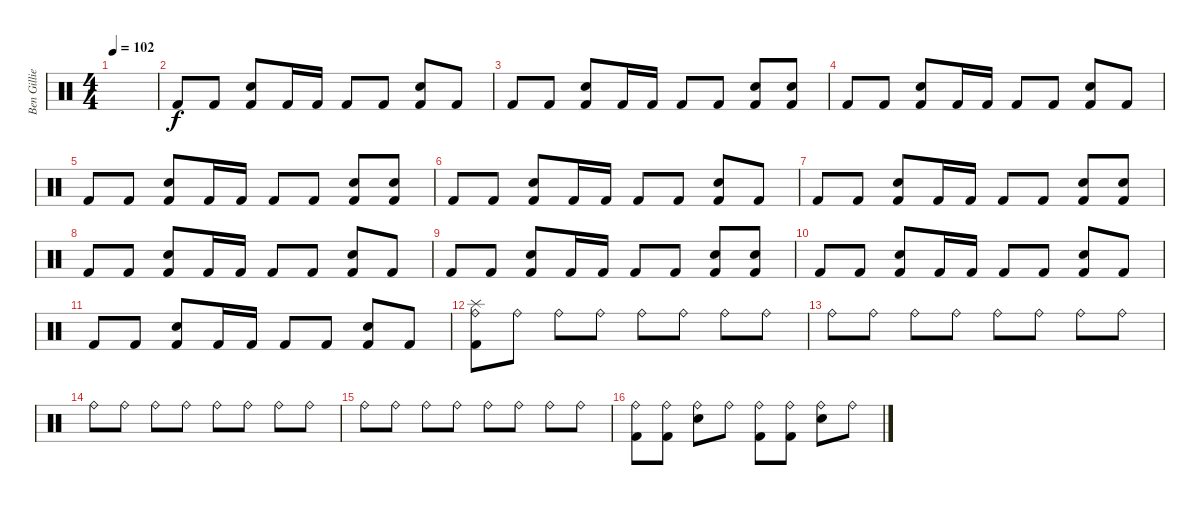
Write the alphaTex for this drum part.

\track ("Ben Gillies" "Ben Gillie") {instrument percussion}
\staff {score}
\articulation defaults
\ts (4 4)
\tempo 102
\clef neutral
\ks c
|
"Kick (hit) 2".8 "Kick (hit) 2".8 ("Electric Snare (hit)" "Kick (hit) 2").8 "Kick (hit) 2".16 "Kick (hit) 2".16 "Kick (hit) 2".8 "Kick (hit) 2".8 ("Electric Snare (hit)" "Kick (hit) 2").8 "Kick (hit) 2".8 |
"Kick (hit) 2".8 "Kick (hit) 2".8 ("Electric Snare (hit)" "Kick (hit) 2").8 "Kick (hit) 2".16 "Kick (hit) 2".16 "Kick (hit) 2".8 "Kick (hit) 2".8 ("Electric Snare (hit)" "Kick (hit) 2").8 ("Electric Snare (hit)" "Kick (hit) 2").8 |
"Kick (hit) 2".8 "Kick (hit) 2".8 ("Electric Snare (hit)" "Kick (hit) 2").8 "Kick (hit) 2".16 "Kick (hit) 2".16 "Kick (hit) 2".8 "Kick (hit) 2".8 ("Electric Snare (hit)" "Kick (hit) 2").8 "Kick (hit) 2".8 |
"Kick (hit) 2".8 "Kick (hit) 2".8 ("Electric Snare (hit)" "Kick (hit) 2").8 "Kick (hit) 2".16 "Kick (hit) 2".16 "Kick (hit) 2".8 "Kick (hit) 2".8 ("Electric Snare (hit)" "Kick (hit) 2").8 ("Electric Snare (hit)" "Kick (hit) 2").8 |
"Kick (hit) 2".8 "Kick (hit) 2".8 ("Electric Snare (hit)" "Kick (hit) 2").8 "Kick (hit) 2".16 "Kick (hit) 2".16 "Kick (hit) 2".8 "Kick (hit) 2".8 ("Electric Snare (hit)" "Kick (hit) 2").8 "Kick (hit) 2".8 |
"Kick (hit) 2".8 "Kick (hit) 2".8 ("Electric Snare (hit)" "Kick (hit) 2").8 "Kick (hit) 2".16 "Kick (hit) 2".16 "Kick (hit) 2".8 "Kick (hit) 2".8 ("Electric Snare (hit)" "Kick (hit) 2").8 ("Electric Snare (hit)" "Kick (hit) 2").8 |
"Kick (hit) 2".8 "Kick (hit) 2".8 ("Electric Snare (hit)" "Kick (hit) 2").8 "Kick (hit) 2".16 "Kick (hit) 2".16 "Kick (hit) 2".8 "Kick (hit) 2".8 ("Electric Snare (hit)" "Kick (hit) 2").8 "Kick (hit) 2".8 |
"Kick (hit) 2".8 "Kick (hit) 2".8 ("Electric Snare (hit)" "Kick (hit) 2").8 "Kick (hit) 2".16 "Kick (hit) 2".16 "Kick (hit) 2".8 "Kick (hit) 2".8 ("Electric Snare (hit)" "Kick (hit) 2").8 ("Electric Snare (hit)" "Kick (hit) 2").8 |
"Kick (hit) 2".8 "Kick (hit) 2".8 ("Electric Snare (hit)" "Kick (hit) 2").8 "Kick (hit) 2".16 "Kick (hit) 2".16 "Kick (hit) 2".8 "Kick (hit) 2".8 ("Electric Snare (hit)" "Kick (hit) 2").8 "Kick (hit) 2".8 |
"Kick (hit) 2".8 "Kick (hit) 2".8 ("Electric Snare (hit)" "Kick (hit) 2").8 "Kick (hit) 2".16 "Kick (hit) 2".16 "Kick (hit) 2".8 "Kick (hit) 2".8 ("Electric Snare (hit)" "Kick (hit) 2").8 "Kick (hit) 2".8 |
("Splash (hit)" "Ride (bell)" "Kick (hit) 2").8 "Ride (bell)".8 "Ride (bell)".8 "Ride (bell)".8 "Ride (bell)".8 "Ride (bell)".8 "Ride (bell)".8 "Ride (bell)".8 |
"Ride (bell)".8 "Ride (bell)".8 "Ride (bell)".8 "Ride (bell)".8 "Ride (bell)".8 "Ride (bell)".8 "Ride (bell)".8 "Ride (bell)".8 |
"Ride (bell)".8 "Ride (bell)".8 "Ride (bell)".8 "Ride (bell)".8 "Ride (bell)".8 "Ride (bell)".8 "Ride (bell)".8 "Ride (bell)".8 |
"Ride (bell)".8 "Ride (bell)".8 "Ride (bell)".8 "Ride (bell)".8 "Ride (bell)".8 "Ride (bell)".8 "Ride (bell)".8 "Ride (bell)".8 |
("Ride (bell)" "Kick (hit) 2").8 ("Ride (bell)" "Kick (hit) 2").8 ("Ride (bell)" "Electric Snare (hit)").8 "Ride (bell)".8 ("Ride (bell)" "Kick (hit) 2").8 ("Ride (bell)" "Kick (hit) 2").8 ("Ride (bell)" "Electric Snare (hit)").8 "Ride (bell)".8
